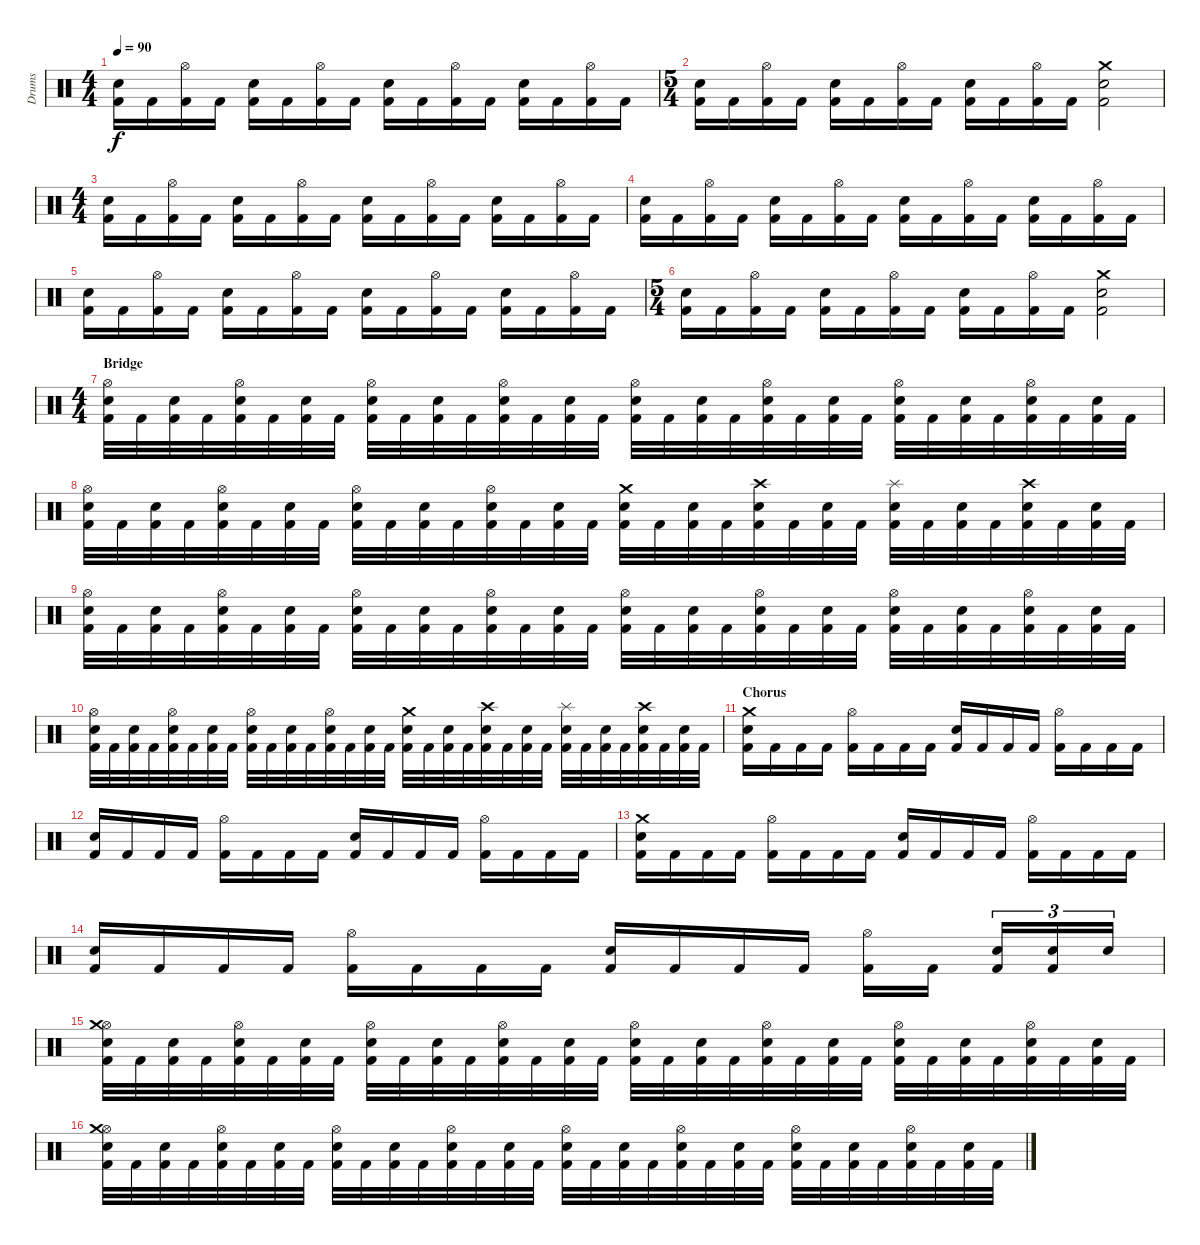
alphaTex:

\track ("Drums" "Drums") {instrument percussion}
\staff {score}
\articulation defaults
\ts (4 4)
\tempo 90
\clef neutral
\ks c
("Kick (hit) 2" "Snare (hit) 2").16{dy f} "Kick (hit) 2".16 ("Kick (hit) 2" "Hi-Hat (open)").16 "Kick (hit) 2".16 ("Kick (hit) 2" "Snare (hit) 2").16 "Kick (hit) 2".16 ("Kick (hit) 2" "Hi-Hat (open)").16 "Kick (hit) 2".16 ("Kick (hit) 2" "Snare (hit) 2").16 "Kick (hit) 2".16 ("Kick (hit) 2" "Hi-Hat (open)").16 "Kick (hit) 2".16 ("Kick (hit) 2" "Snare (hit) 2").16 "Kick (hit) 2".16 ("Kick (hit) 2" "Hi-Hat (open)").16 "Kick (hit) 2".16 |
\ts (5 4)
("Kick (hit) 2" "Snare (hit) 2").16 "Kick (hit) 2".16 ("Kick (hit) 2" "Hi-Hat (open)").16 "Kick (hit) 2".16 ("Kick (hit) 2" "Snare (hit) 2").16 "Kick (hit) 2".16 ("Kick (hit) 2" "Hi-Hat (open)").16 "Kick (hit) 2".16 ("Kick (hit) 2" "Snare (hit) 2").16 "Kick (hit) 2".16 ("Kick (hit) 2" "Hi-Hat (open)").16 "Kick (hit) 2".16 ("Kick (hit) 2" "Snare (hit) 2" "Crash medium (hit)").2 |
\ts (4 4)
("Kick (hit) 2" "Snare (hit) 2").16 "Kick (hit) 2".16 ("Kick (hit) 2" "Hi-Hat (open)").16 "Kick (hit) 2".16 ("Kick (hit) 2" "Snare (hit) 2").16 "Kick (hit) 2".16 ("Kick (hit) 2" "Hi-Hat (open)").16 "Kick (hit) 2".16 ("Kick (hit) 2" "Snare (hit) 2").16 "Kick (hit) 2".16 ("Kick (hit) 2" "Hi-Hat (open)").16 "Kick (hit) 2".16 ("Kick (hit) 2" "Snare (hit) 2").16 "Kick (hit) 2".16 ("Kick (hit) 2" "Hi-Hat (open)").16 "Kick (hit) 2".16 |
("Kick (hit) 2" "Snare (hit) 2").16 "Kick (hit) 2".16 ("Kick (hit) 2" "Hi-Hat (open)").16 "Kick (hit) 2".16 ("Kick (hit) 2" "Snare (hit) 2").16 "Kick (hit) 2".16 ("Kick (hit) 2" "Hi-Hat (open)").16 "Kick (hit) 2".16 ("Kick (hit) 2" "Snare (hit) 2").16 "Kick (hit) 2".16 ("Kick (hit) 2" "Hi-Hat (open)").16 "Kick (hit) 2".16 ("Kick (hit) 2" "Snare (hit) 2").16 "Kick (hit) 2".16 ("Kick (hit) 2" "Hi-Hat (open)").16 "Kick (hit) 2".16 |
("Kick (hit) 2" "Snare (hit) 2").16 "Kick (hit) 2".16 ("Kick (hit) 2" "Hi-Hat (open)").16 "Kick (hit) 2".16 ("Kick (hit) 2" "Snare (hit) 2").16 "Kick (hit) 2".16 ("Kick (hit) 2" "Hi-Hat (open)").16 "Kick (hit) 2".16 ("Kick (hit) 2" "Snare (hit) 2").16 "Kick (hit) 2".16 ("Kick (hit) 2" "Hi-Hat (open)").16 "Kick (hit) 2".16 ("Kick (hit) 2" "Snare (hit) 2").16 "Kick (hit) 2".16 ("Kick (hit) 2" "Hi-Hat (open)").16 "Kick (hit) 2".16 |
\ts (5 4)
("Kick (hit) 2" "Snare (hit) 2").16 "Kick (hit) 2".16 ("Kick (hit) 2" "Hi-Hat (open)").16 "Kick (hit) 2".16 ("Kick (hit) 2" "Snare (hit) 2").16 "Kick (hit) 2".16 ("Kick (hit) 2" "Hi-Hat (open)").16 "Kick (hit) 2".16 ("Kick (hit) 2" "Snare (hit) 2").16 "Kick (hit) 2".16 ("Kick (hit) 2" "Hi-Hat (open)").16 "Kick (hit) 2".16 ("Kick (hit) 2" "Snare (hit) 2" "Crash medium (hit)").2 |
\ts (4 4)
\section ("" "Bridge")
("Kick (hit) 2" "Hi-Hat (open)" "Snare (hit) 2").32 "Kick (hit) 2".32 ("Kick (hit) 2" "Snare (hit) 2").32 "Kick (hit) 2".32 ("Kick (hit) 2" "Hi-Hat (open)" "Snare (hit) 2").32 "Kick (hit) 2".32 ("Kick (hit) 2" "Snare (hit) 2").32 "Kick (hit) 2".32 ("Kick (hit) 2" "Hi-Hat (open)" "Snare (hit) 2").32 "Kick (hit) 2".32 ("Kick (hit) 2" "Snare (hit) 2").32 "Kick (hit) 2".32 ("Kick (hit) 2" "Hi-Hat (open)" "Snare (hit) 2").32 "Kick (hit) 2".32 ("Kick (hit) 2" "Snare (hit) 2").32 "Kick (hit) 2".32 ("Kick (hit) 2" "Hi-Hat (open)" "Snare (hit) 2").32 "Kick (hit) 2".32 ("Kick (hit) 2" "Snare (hit) 2").32 "Kick (hit) 2".32 ("Kick (hit) 2" "Hi-Hat (open)" "Snare (hit) 2").32 "Kick (hit) 2".32 ("Kick (hit) 2" "Snare (hit) 2").32 "Kick (hit) 2".32 ("Kick (hit) 2" "Hi-Hat (open)" "Snare (hit) 2").32 "Kick (hit) 2".32 ("Kick (hit) 2" "Snare (hit) 2").32 "Kick (hit) 2".32 ("Kick (hit) 2" "Hi-Hat (open)" "Snare (hit) 2").32 "Kick (hit) 2".32 ("Kick (hit) 2" "Snare (hit) 2").32 "Kick (hit) 2".32 |
("Kick (hit) 2" "Hi-Hat (open)" "Snare (hit) 2").32 "Kick (hit) 2".32 ("Kick (hit) 2" "Snare (hit) 2").32 "Kick (hit) 2".32 ("Kick (hit) 2" "Hi-Hat (open)" "Snare (hit) 2").32 "Kick (hit) 2".32 ("Kick (hit) 2" "Snare (hit) 2").32 "Kick (hit) 2".32 ("Kick (hit) 2" "Hi-Hat (open)" "Snare (hit) 2").32 "Kick (hit) 2".32 ("Kick (hit) 2" "Snare (hit) 2").32 "Kick (hit) 2".32 ("Kick (hit) 2" "Hi-Hat (open)" "Snare (hit) 2").32 "Kick (hit) 2".32 ("Kick (hit) 2" "Snare (hit) 2").32 "Kick (hit) 2".32 ("Kick (hit) 2" "Snare (hit) 2" "Crash medium (hit)").32 "Kick (hit) 2".32 ("Kick (hit) 2" "Snare (hit) 2").32 "Kick (hit) 2".32 ("Kick (hit) 2" "Snare (hit) 2" "Crash high (hit)").32 "Kick (hit) 2".32 ("Kick (hit) 2" "Snare (hit) 2").32 "Kick (hit) 2".32 ("Kick (hit) 2" "Snare (hit) 2" "Splash (hit)").32 "Kick (hit) 2".32 ("Kick (hit) 2" "Snare (hit) 2").32 "Kick (hit) 2".32 ("Kick (hit) 2" "Snare (hit) 2" "Crash high (hit)").32 "Kick (hit) 2".32 ("Kick (hit) 2" "Snare (hit) 2").32 "Kick (hit) 2".32 |
("Kick (hit) 2" "Hi-Hat (open)" "Snare (hit) 2").32 "Kick (hit) 2".32 ("Kick (hit) 2" "Snare (hit) 2").32 "Kick (hit) 2".32 ("Kick (hit) 2" "Hi-Hat (open)" "Snare (hit) 2").32 "Kick (hit) 2".32 ("Kick (hit) 2" "Snare (hit) 2").32 "Kick (hit) 2".32 ("Kick (hit) 2" "Hi-Hat (open)" "Snare (hit) 2").32 "Kick (hit) 2".32 ("Kick (hit) 2" "Snare (hit) 2").32 "Kick (hit) 2".32 ("Kick (hit) 2" "Hi-Hat (open)" "Snare (hit) 2").32 "Kick (hit) 2".32 ("Kick (hit) 2" "Snare (hit) 2").32 "Kick (hit) 2".32 ("Kick (hit) 2" "Hi-Hat (open)" "Snare (hit) 2").32 "Kick (hit) 2".32 ("Kick (hit) 2" "Snare (hit) 2").32 "Kick (hit) 2".32 ("Kick (hit) 2" "Hi-Hat (open)" "Snare (hit) 2").32 "Kick (hit) 2".32 ("Kick (hit) 2" "Snare (hit) 2").32 "Kick (hit) 2".32 ("Kick (hit) 2" "Hi-Hat (open)" "Snare (hit) 2").32 "Kick (hit) 2".32 ("Kick (hit) 2" "Snare (hit) 2").32 "Kick (hit) 2".32 ("Kick (hit) 2" "Hi-Hat (open)" "Snare (hit) 2").32 "Kick (hit) 2".32 ("Kick (hit) 2" "Snare (hit) 2").32 "Kick (hit) 2".32 |
("Kick (hit) 2" "Hi-Hat (open)" "Snare (hit) 2").32 "Kick (hit) 2".32 ("Kick (hit) 2" "Snare (hit) 2").32 "Kick (hit) 2".32 ("Kick (hit) 2" "Hi-Hat (open)" "Snare (hit) 2").32 "Kick (hit) 2".32 ("Kick (hit) 2" "Snare (hit) 2").32 "Kick (hit) 2".32 ("Kick (hit) 2" "Hi-Hat (open)" "Snare (hit) 2").32 "Kick (hit) 2".32 ("Kick (hit) 2" "Snare (hit) 2").32 "Kick (hit) 2".32 ("Kick (hit) 2" "Hi-Hat (open)" "Snare (hit) 2").32 "Kick (hit) 2".32 ("Kick (hit) 2" "Snare (hit) 2").32 "Kick (hit) 2".32 ("Kick (hit) 2" "Snare (hit) 2" "Crash medium (hit)").32 "Kick (hit) 2".32 ("Kick (hit) 2" "Snare (hit) 2").32 "Kick (hit) 2".32 ("Kick (hit) 2" "Snare (hit) 2" "Crash high (hit)").32 "Kick (hit) 2".32 ("Kick (hit) 2" "Snare (hit) 2").32 "Kick (hit) 2".32 ("Kick (hit) 2" "Snare (hit) 2" "Splash (hit)").32 "Kick (hit) 2".32 ("Kick (hit) 2" "Snare (hit) 2").32 "Kick (hit) 2".32 ("Kick (hit) 2" "Snare (hit) 2" "Crash high (hit)").32 "Kick (hit) 2".32 ("Kick (hit) 2" "Snare (hit) 2").32 "Kick (hit) 2".32 |
\section ("" "Chorus")
("Kick (hit) 2" "Snare (hit) 2" "Crash medium (hit)").16 "Kick (hit) 2".16 "Kick (hit) 2".16 "Kick (hit) 2".16 ("Kick (hit) 2" "Hi-Hat (open)").16 "Kick (hit) 2".16 "Kick (hit) 2".16 "Kick (hit) 2".16 ("Kick (hit) 2" "Snare (hit) 2").16 "Kick (hit) 2".16 "Kick (hit) 2".16 "Kick (hit) 2".16 ("Kick (hit) 2" "Hi-Hat (open)").16 "Kick (hit) 2".16 "Kick (hit) 2".16 "Kick (hit) 2".16 |
("Kick (hit) 2" "Snare (hit) 2").16 "Kick (hit) 2".16 "Kick (hit) 2".16 "Kick (hit) 2".16 ("Kick (hit) 2" "Hi-Hat (open)").16 "Kick (hit) 2".16 "Kick (hit) 2".16 "Kick (hit) 2".16 ("Kick (hit) 2" "Snare (hit) 2").16 "Kick (hit) 2".16 "Kick (hit) 2".16 "Kick (hit) 2".16 ("Kick (hit) 2" "Hi-Hat (open)").16 "Kick (hit) 2".16 "Kick (hit) 2".16 "Kick (hit) 2".16 |
("Kick (hit) 2" "Snare (hit) 2" "Crash medium (hit)").16 "Kick (hit) 2".16 "Kick (hit) 2".16 "Kick (hit) 2".16 ("Kick (hit) 2" "Hi-Hat (open)").16 "Kick (hit) 2".16 "Kick (hit) 2".16 "Kick (hit) 2".16 ("Kick (hit) 2" "Snare (hit) 2").16 "Kick (hit) 2".16 "Kick (hit) 2".16 "Kick (hit) 2".16 ("Kick (hit) 2" "Hi-Hat (open)").16 "Kick (hit) 2".16 "Kick (hit) 2".16 "Kick (hit) 2".16 |
("Kick (hit) 2" "Snare (hit) 2").16 "Kick (hit) 2".16 "Kick (hit) 2".16 "Kick (hit) 2".16 ("Kick (hit) 2" "Hi-Hat (open)").16 "Kick (hit) 2".16 "Kick (hit) 2".16 "Kick (hit) 2".16 ("Kick (hit) 2" "Snare (hit) 2").16 "Kick (hit) 2".16 "Kick (hit) 2".16 "Kick (hit) 2".16 ("Kick (hit) 2" "Hi-Hat (open)").16 "Kick (hit) 2".16 ("Kick (hit) 2" "Snare (hit) 2").16{tu (3 2)} ("Kick (hit) 2" "Snare (hit) 2").16{tu (3 2)} "Snare (hit) 2".16{tu (3 2)} |
("Kick (hit) 2" "Hi-Hat (open)" "Snare (hit) 2" "Crash medium (hit)").32 "Kick (hit) 2".32 ("Kick (hit) 2" "Snare (hit) 2").32 "Kick (hit) 2".32 ("Kick (hit) 2" "Hi-Hat (open)" "Snare (hit) 2").32 "Kick (hit) 2".32 ("Kick (hit) 2" "Snare (hit) 2").32 "Kick (hit) 2".32 ("Kick (hit) 2" "Hi-Hat (open)" "Snare (hit) 2").32 "Kick (hit) 2".32 ("Kick (hit) 2" "Snare (hit) 2").32 "Kick (hit) 2".32 ("Kick (hit) 2" "Hi-Hat (open)" "Snare (hit) 2").32 "Kick (hit) 2".32 ("Kick (hit) 2" "Snare (hit) 2").32 "Kick (hit) 2".32 ("Kick (hit) 2" "Hi-Hat (open)" "Snare (hit) 2").32 "Kick (hit) 2".32 ("Kick (hit) 2" "Snare (hit) 2").32 "Kick (hit) 2".32 ("Kick (hit) 2" "Hi-Hat (open)" "Snare (hit) 2").32 "Kick (hit) 2".32 ("Kick (hit) 2" "Snare (hit) 2").32 "Kick (hit) 2".32 ("Kick (hit) 2" "Hi-Hat (open)" "Snare (hit) 2").32 "Kick (hit) 2".32 ("Kick (hit) 2" "Snare (hit) 2").32 "Kick (hit) 2".32 ("Kick (hit) 2" "Hi-Hat (open)" "Snare (hit) 2").32 "Kick (hit) 2".32 ("Kick (hit) 2" "Snare (hit) 2").32 "Kick (hit) 2".32 |
("Kick (hit) 2" "Hi-Hat (open)" "Snare (hit) 2" "Crash medium (hit)").32 "Kick (hit) 2".32 ("Kick (hit) 2" "Snare (hit) 2").32 "Kick (hit) 2".32 ("Kick (hit) 2" "Hi-Hat (open)" "Snare (hit) 2").32 "Kick (hit) 2".32 ("Kick (hit) 2" "Snare (hit) 2").32 "Kick (hit) 2".32 ("Kick (hit) 2" "Hi-Hat (open)" "Snare (hit) 2").32 "Kick (hit) 2".32 ("Kick (hit) 2" "Snare (hit) 2").32 "Kick (hit) 2".32 ("Kick (hit) 2" "Hi-Hat (open)" "Snare (hit) 2").32 "Kick (hit) 2".32 ("Kick (hit) 2" "Snare (hit) 2").32 "Kick (hit) 2".32 ("Kick (hit) 2" "Hi-Hat (open)" "Snare (hit) 2").32 "Kick (hit) 2".32 ("Kick (hit) 2" "Snare (hit) 2").32 "Kick (hit) 2".32 ("Kick (hit) 2" "Hi-Hat (open)" "Snare (hit) 2").32 "Kick (hit) 2".32 ("Kick (hit) 2" "Snare (hit) 2").32 "Kick (hit) 2".32 ("Kick (hit) 2" "Hi-Hat (open)" "Snare (hit) 2").32 "Kick (hit) 2".32 ("Kick (hit) 2" "Snare (hit) 2").32 "Kick (hit) 2".32 ("Kick (hit) 2" "Hi-Hat (open)" "Snare (hit) 2").32 "Kick (hit) 2".32 ("Kick (hit) 2" "Snare (hit) 2").32 "Kick (hit) 2".32
